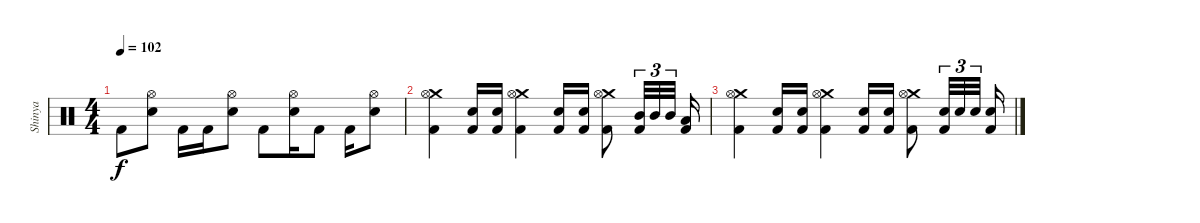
\track ("Shinya" "Shinya") {instrument percussion}
\staff {score}
\articulation defaults
\ts (4 4)
\tempo 102
\clef neutral
\ks c "Kick (hit) 2".8{dy f}
("Hi-Hat (open)" "Electric Snare (hit)").8 "Kick (hit) 2".16 "Kick (hit) 2".16 ("Hi-Hat (open)" "Electric Snare (hit)").8 "Kick (hit) 2".8 ("Hi-Hat (open)" "Electric Snare (hit)").16 "Kick (hit) 2".8 "Kick (hit) 2".16 ("Hi-Hat (open)" "Electric Snare (hit)").8 |
("Crash medium (hit)" "Hi-Hat (open)" "Kick (hit) 2").4 ("Electric Snare (hit)" "Kick (hit) 2").16 ("Electric Snare (hit)" "Kick (hit) 2").16 ("Crash medium (hit)" "Hi-Hat (open)" "Kick (hit) 2").4 ("Electric Snare (hit)" "Kick (hit) 2").16 ("Electric Snare (hit)" "Kick (hit) 2").16 ("Crash medium (hit)" "Hi-Hat (open)" "Kick (hit) 2").8 ("Mid Tom (hit)" "Kick (hit) 2").32{tu (3 2)} "Mid Tom (hit)".32{tu (3 2)} "Mid Tom (hit)".32{tu (3 2) beam splitsecondary} ("Low Tom (hit)" "Kick (hit) 2").16 |
("Crash medium (hit)" "Hi-Hat (open)" "Kick (hit) 2").4 ("Electric Snare (hit)" "Kick (hit) 2").16 ("Electric Snare (hit)" "Kick (hit) 2").16 ("Crash medium (hit)" "Hi-Hat (open)" "Kick (hit) 2").4 ("Electric Snare (hit)" "Kick (hit) 2").16 ("Electric Snare (hit)" "Kick (hit) 2").16 ("Crash medium (hit)" "Hi-Hat (open)" "Kick (hit) 2").8 ("Electric Snare (hit)" "Kick (hit) 2").32{tu (3 2)} "Electric Snare (hit)".32{tu (3 2)} "Electric Snare (hit)".32{tu (3 2) beam splitsecondary} ("Electric Snare (hit)" "Kick (hit) 2").16
